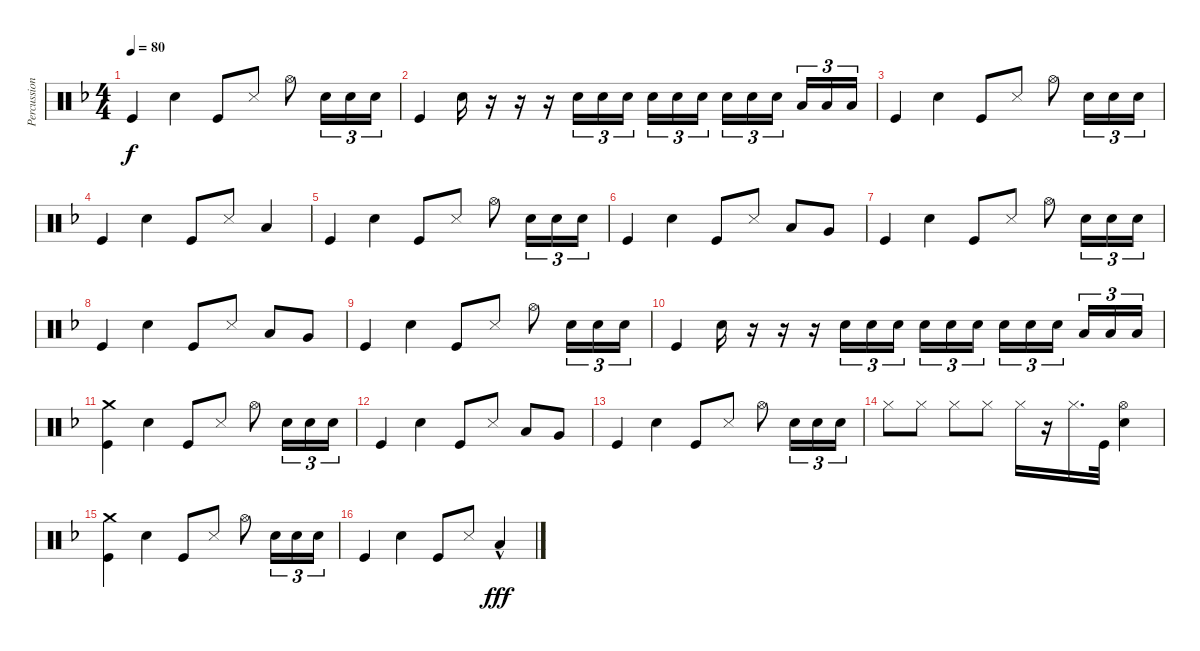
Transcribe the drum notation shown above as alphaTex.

\track ("Percussion" "Percussion") {instrument percussion}
\staff {score}
\articulation defaults
\ts (4 4)
\tempo 80
\clef neutral
\ks f "Kick (hit)".4{dy f} "Electric Snare (hit)".4 "Kick (hit)".8 "Snare (side stick) 3".8 "Hi-Hat (open)".8 "Electric Snare (hit)".16{tu (3 2)} "Electric Snare (hit)".16{tu (3 2)} "Electric Snare (hit)".16{tu (3 2)}
|
"Kick (hit)".4 "Electric Snare (hit)".16 r.16{volume 6} r.16 r.16{volume 13} "Electric Snare (hit)".16{tu (3 2)} "Electric Snare (hit)".16{tu (3 2)} "Electric Snare (hit)".16{tu (3 2) beam splitsecondary} "Electric Snare (hit)".16{tu (3 2)} "Electric Snare (hit)".16{tu (3 2)} "Electric Snare (hit)".16{tu (3 2)} "Electric Snare (hit)".16{tu (3 2)} "Electric Snare (hit)".16{tu (3 2)} "Electric Snare (hit)".16{tu (3 2) beam splitsecondary} "Low Tom (hit)".16{tu (3 2)} "Low Tom (hit)".16{tu (3 2)} "Low Tom (hit)".16{tu (3 2)} |
"Kick (hit)".4 "Electric Snare (hit)".4 "Kick (hit)".8 "Snare (side stick) 3".8 "Hi-Hat (open)".8 "Electric Snare (hit)".16{tu (3 2)} "Electric Snare (hit)".16{tu (3 2)} "Electric Snare (hit)".16{tu (3 2)} |
"Kick (hit)".4 "Electric Snare (hit)".4 "Kick (hit)".8 "Snare (side stick) 3".8 "Low Tom (hit)".4 |
"Kick (hit)".4 "Electric Snare (hit)".4 "Kick (hit)".8 "Snare (side stick) 3".8 "Hi-Hat (open)".8 "Electric Snare (hit)".16{tu (3 2)} "Electric Snare (hit)".16{tu (3 2)} "Electric Snare (hit)".16{tu (3 2)} |
"Kick (hit)".4 "Electric Snare (hit)".4 "Kick (hit)".8 "Snare (side stick) 3".8 "Low Tom (hit)".8 "Very Low Tom (hit)".8 |
"Kick (hit)".4 "Electric Snare (hit)".4 "Kick (hit)".8 "Snare (side stick) 3".8 "Hi-Hat (open)".8 "Electric Snare (hit)".16{tu (3 2)} "Electric Snare (hit)".16{tu (3 2)} "Electric Snare (hit)".16{tu (3 2)} |
"Kick (hit)".4 "Electric Snare (hit)".4 "Kick (hit)".8 "Snare (side stick) 3".8 "Low Tom (hit)".8 "Very Low Tom (hit)".8 |
"Kick (hit)".4 "Electric Snare (hit)".4 "Kick (hit)".8 "Snare (side stick) 3".8 "Hi-Hat (open)".8 "Electric Snare (hit)".16{tu (3 2)} "Electric Snare (hit)".16{tu (3 2)} "Electric Snare (hit)".16{tu (3 2)} |
"Kick (hit)".4 "Electric Snare (hit)".16 r.16{volume 6} r.16 r.16{volume 13} "Electric Snare (hit)".16{tu (3 2)} "Electric Snare (hit)".16{tu (3 2)} "Electric Snare (hit)".16{tu (3 2) beam splitsecondary} "Electric Snare (hit)".16{tu (3 2)} "Electric Snare (hit)".16{tu (3 2)} "Electric Snare (hit)".16{tu (3 2)} "Electric Snare (hit)".16{tu (3 2)} "Electric Snare (hit)".16{tu (3 2)} "Electric Snare (hit)".16{tu (3 2) beam splitsecondary} "Low Tom (hit)".16{tu (3 2)} "Low Tom (hit)".16{tu (3 2)} "Low Tom (hit)".16{tu (3 2)} |
("Crash medium (hit)" "Kick (hit)").4 "Electric Snare (hit)".4 "Kick (hit)".8 "Snare (side stick) 3".8 "Hi-Hat (open)".8 "Electric Snare (hit)".16{tu (3 2)} "Electric Snare (hit)".16{tu (3 2)} "Electric Snare (hit)".16{tu (3 2)} |
"Kick (hit)".4 "Electric Snare (hit)".4 "Kick (hit)".8 "Snare (side stick) 3".8 "Low Tom (hit)".8 "Very Low Tom (hit)".8 |
"Kick (hit)".4 "Electric Snare (hit)".4 "Kick (hit)".8 "Snare (side stick) 3".8 "Hi-Hat (open)".8 "Electric Snare (hit)".16{tu (3 2)} "Electric Snare (hit)".16{tu (3 2)} "Electric Snare (hit)".16{tu (3 2)} |
"Hi-Hat (closed)".8 "Hi-Hat (closed)".8 "Hi-Hat (closed)".8 "Hi-Hat (closed)".8 "Hi-Hat (closed)".16 r.16 "Hi-Hat (closed)".16{d} "Kick (hit)".32 ("Hi-Hat (open)" "Electric Snare (hit)").4 |
("Crash medium (hit)" "Kick (hit)").4 "Electric Snare (hit)".4 "Kick (hit)".8 "Snare (side stick) 3".8 "Hi-Hat (open)".8 "Electric Snare (hit)".16{tu (3 2)} "Electric Snare (hit)".16{tu (3 2)} "Electric Snare (hit)".16{tu (3 2)} |
"Kick (hit)".4 "Electric Snare (hit)".4 "Kick (hit)".8 "Snare (side stick) 3".8 "Low Tom (hit)"{hac}.4{dy fff}
